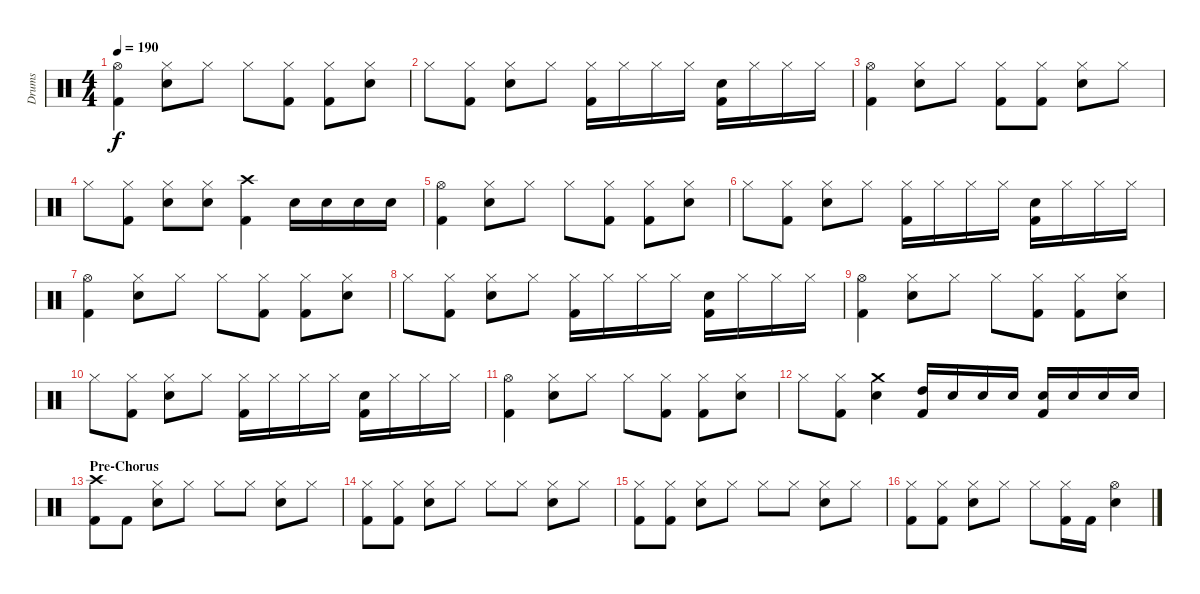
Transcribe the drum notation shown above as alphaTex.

\track ("Drums" "Drums") {instrument percussion}
\staff {score}
\articulation defaults
\ts (4 4)
\tempo 190
\clef neutral
\ks c
("Hi-Hat (open)" "Kick (hit) 2").4{dy f} ("Hi-Hat (closed)" "Snare (hit) 2").8 "Hi-Hat (closed)".8 "Hi-Hat (closed)".8 ("Hi-Hat (closed)" "Kick (hit) 2").8 ("Hi-Hat (closed)" "Kick (hit) 2").8 ("Hi-Hat (closed)" "Snare (hit) 2").8 |
"Hi-Hat (closed)".8 ("Hi-Hat (closed)" "Kick (hit) 2").8 ("Hi-Hat (closed)" "Snare (hit) 2").8 "Hi-Hat (closed)".8 ("Hi-Hat (closed)" "Kick (hit) 2").16 "Hi-Hat (closed)".16 "Hi-Hat (closed)".16 "Hi-Hat (closed)".16 ("Snare (hit) 2" "Kick (hit) 2").16 "Hi-Hat (closed)".16 "Hi-Hat (closed)".16 "Hi-Hat (closed)".16 |
("Hi-Hat (open)" "Kick (hit) 2").4 ("Hi-Hat (closed)" "Snare (hit) 2").8 "Hi-Hat (closed)".8 ("Hi-Hat (closed)" "Kick (hit) 2").8 ("Hi-Hat (closed)" "Kick (hit) 2").8 ("Hi-Hat (closed)" "Snare (hit) 2").8 "Hi-Hat (closed)".8 |
"Hi-Hat (closed)".8 ("Hi-Hat (closed)" "Kick (hit) 2").8 ("Hi-Hat (closed)" "Snare (hit) 2").8 ("Hi-Hat (closed)" "Snare (hit) 2").8 ("Crash high (hit)" "Kick (hit) 2").4 "Snare (hit) 2".16 "Snare (hit) 2".16 "Snare (hit) 2".16 "Snare (hit) 2".16 |
("Hi-Hat (open)" "Kick (hit) 2").4 ("Hi-Hat (closed)" "Snare (hit) 2").8 "Hi-Hat (closed)".8 "Hi-Hat (closed)".8 ("Hi-Hat (closed)" "Kick (hit) 2").8 ("Hi-Hat (closed)" "Kick (hit) 2").8 ("Hi-Hat (closed)" "Snare (hit) 2").8 |
"Hi-Hat (closed)".8 ("Hi-Hat (closed)" "Kick (hit) 2").8 ("Hi-Hat (closed)" "Snare (hit) 2").8 "Hi-Hat (closed)".8 ("Hi-Hat (closed)" "Kick (hit) 2").16 "Hi-Hat (closed)".16 "Hi-Hat (closed)".16 "Hi-Hat (closed)".16 ("Snare (hit) 2" "Kick (hit) 2").16 "Hi-Hat (closed)".16 "Hi-Hat (closed)".16 "Hi-Hat (closed)".16 |
("Hi-Hat (open)" "Kick (hit) 2").4 ("Hi-Hat (closed)" "Snare (hit) 2").8 "Hi-Hat (closed)".8 "Hi-Hat (closed)".8 ("Hi-Hat (closed)" "Kick (hit) 2").8 ("Hi-Hat (closed)" "Kick (hit) 2").8 ("Hi-Hat (closed)" "Snare (hit) 2").8 |
"Hi-Hat (closed)".8 ("Hi-Hat (closed)" "Kick (hit) 2").8 ("Hi-Hat (closed)" "Snare (hit) 2").8 "Hi-Hat (closed)".8 ("Hi-Hat (closed)" "Kick (hit) 2").16 "Hi-Hat (closed)".16 "Hi-Hat (closed)".16 "Hi-Hat (closed)".16 ("Snare (hit) 2" "Kick (hit) 2").16 "Hi-Hat (closed)".16 "Hi-Hat (closed)".16 "Hi-Hat (closed)".16 |
("Hi-Hat (open)" "Kick (hit) 2").4 ("Hi-Hat (closed)" "Snare (hit) 2").8 "Hi-Hat (closed)".8 "Hi-Hat (closed)".8 ("Hi-Hat (closed)" "Kick (hit) 2").8 ("Hi-Hat (closed)" "Kick (hit) 2").8 ("Hi-Hat (closed)" "Snare (hit) 2").8 |
"Hi-Hat (closed)".8 ("Hi-Hat (closed)" "Kick (hit) 2").8 ("Hi-Hat (closed)" "Snare (hit) 2").8 "Hi-Hat (closed)".8 ("Hi-Hat (closed)" "Kick (hit) 2").16 "Hi-Hat (closed)".16 "Hi-Hat (closed)".16 "Hi-Hat (closed)".16 ("Snare (hit) 2" "Kick (hit) 2").16 "Hi-Hat (closed)".16 "Hi-Hat (closed)".16 "Hi-Hat (closed)".16 |
("Hi-Hat (open)" "Kick (hit) 2").4 ("Hi-Hat (closed)" "Snare (hit) 2").8 "Hi-Hat (closed)".8 "Hi-Hat (closed)".8 ("Hi-Hat (closed)" "Kick (hit) 2").8 ("Hi-Hat (closed)" "Kick (hit) 2").8 ("Hi-Hat (closed)" "Snare (hit) 2").8 |
"Hi-Hat (closed)".8 ("Hi-Hat (closed)" "Kick (hit) 2").8 ("Crash medium (hit)" "Snare (hit) 2").4 ("High Tom (hit)" "Kick (hit) 2").16 "Snare (hit) 2".16 "Snare (hit) 2".16 "Snare (hit) 2".16 ("Snare (hit) 2" "Kick (hit) 2").16 "Snare (hit) 2".16 "Snare (hit) 2".16 "Snare (hit) 2".16 |
\section ("" "Pre-Chorus")
("Crash high (hit)" "Kick (hit) 2").8 "Kick (hit) 2".8 ("Hi-Hat (closed)" "Snare (hit) 2").8 "Hi-Hat (closed)".8 "Hi-Hat (closed)".8 "Hi-Hat (closed)".8 ("Hi-Hat (closed)" "Snare (hit) 2").8 "Hi-Hat (closed)".8 |
("Hi-Hat (closed)" "Kick (hit) 2").8 ("Hi-Hat (closed)" "Kick (hit) 2").8 ("Hi-Hat (closed)" "Snare (hit) 2").8 "Hi-Hat (closed)".8 "Hi-Hat (closed)".8 "Hi-Hat (closed)".8 ("Hi-Hat (closed)" "Snare (hit) 2").8 "Hi-Hat (closed)".8 |
("Hi-Hat (closed)" "Kick (hit) 2").8 ("Hi-Hat (closed)" "Kick (hit) 2").8 ("Hi-Hat (closed)" "Snare (hit) 2").8 "Hi-Hat (closed)".8 "Hi-Hat (closed)".8 "Hi-Hat (closed)".8 ("Hi-Hat (closed)" "Snare (hit) 2").8 "Hi-Hat (closed)".8 |
("Hi-Hat (closed)" "Kick (hit) 2").8 ("Hi-Hat (closed)" "Kick (hit) 2").8 ("Hi-Hat (closed)" "Snare (hit) 2").8 "Hi-Hat (closed)".8 "Hi-Hat (closed)".8 ("Hi-Hat (closed)" "Kick (hit) 2").16 "Kick (hit) 2".16 ("Hi-Hat (open)" "Snare (hit) 2").4
